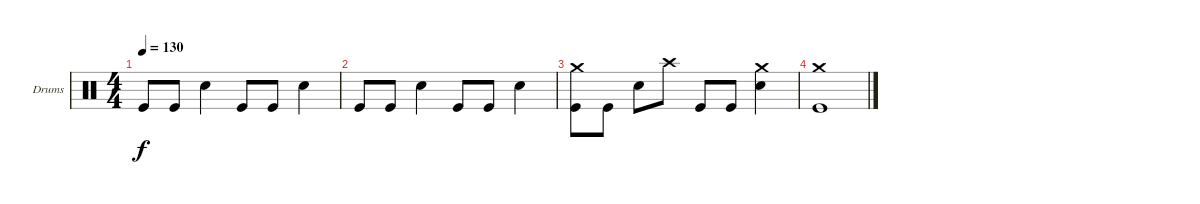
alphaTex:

\defaultSystemsLayout 4
\bracketExtendMode groupsimilarinstruments
\firstSystemTrackNameOrientation horizontal
\otherSystemsTrackNameOrientation horizontal
\track ("Drums" "Drums") {instrument percussion}
\staff {score}
\articulation defaults
\ts (4 4)
\tempo 130
\clef neutral
\ks aminor "Kick (hit)".8{dy f} "Kick (hit)".8 "Snare (hit) 2".4 "Kick (hit)".8 "Kick (hit)".8 "Snare (hit) 2".4
|
"Kick (hit)".8 "Kick (hit)".8 "Snare (hit) 2".4 "Kick (hit)".8 "Kick (hit)".8 "Snare (hit) 2".4 |
("Kick (hit)" "Crash medium (hit)").8 "Kick (hit)".8 "Snare (hit) 2".8 "Crash high (hit)".8 "Kick (hit)".8 "Kick (hit)".8 ("Snare (hit) 2" "Crash medium (hit)").4 |
("Kick (hit)" "Crash medium (hit)").1
